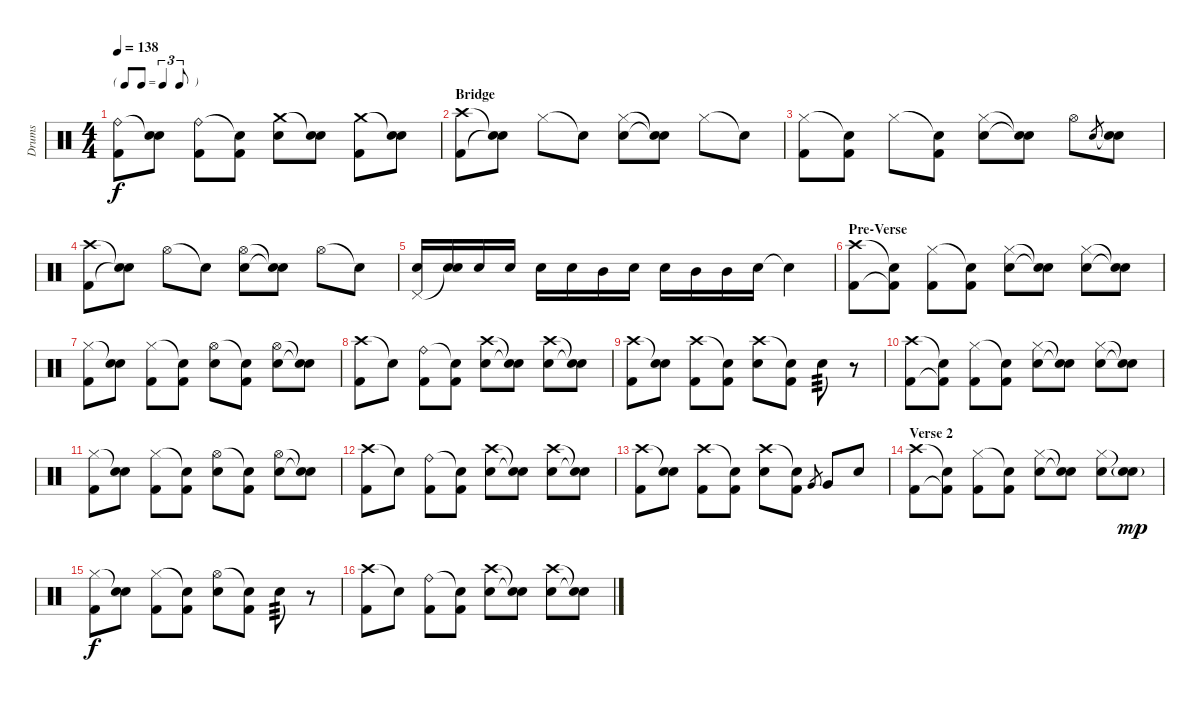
\track ("Drums" "Drums") {instrument percussion}
\staff {score}
\articulation defaults
\ts (4 4)
\tf triplet8th
\tempo 138
\clef neutral
\ks c
("Ride (bell)" "Kick (hit) 2").8{dy f} ("Snare (hit)"{t} "Electric Snare (hit)").8 ("Ride (bell)" "Kick (hit) 2").8 ("Snare (hit)"{t} "Kick (hit) 2").8 ("Crash medium (hit)" "Electric Snare (hit)").8 ("Snare (hit)"{t} "Electric Snare (hit)").8 ("Crash medium (hit)" "Kick (hit) 2").8 ("Snare (hit)"{t} "Electric Snare (hit)").8 |
\section ("" "Bridge")
("Crash high (hit)" "Kick (hit) 2").8 ("Snare (hit)"{t} "Snare (hit)"{t}).8 "Hi-Hat (closed)".8 "Snare (hit)"{t}.8 ("Hi-Hat (closed)" "Electric Snare (hit)").8 ("Snare (hit)"{t} "Snare (hit)"{t}).8 "Hi-Hat (closed)".8 "Snare (hit)"{t}.8 |
("Hi-Hat (closed)" "Kick (hit) 2").8 ("Snare (hit)"{t} "Kick (hit) 2").8 "Hi-Hat (closed)".8 ("Snare (hit)"{t} "Kick (hit) 2").8 ("Hi-Hat (closed)" "Electric Snare (hit)").8 ("Snare (hit)"{t} "Snare (hit)"{t}).8 "Hi-Hat (open)".8 "Electric Snare (hit)".8{gr} ("Snare (hit)"{t} "Electric Snare (hit)").8 |
("Crash high (hit)" "Kick (hit) 2").8 ("Snare (hit)"{t} "Snare (hit)"{t}).8 "Hi-Hat (open)".8 "Snare (hit)"{t}.8 ("Hi-Hat (open)" "Electric Snare (hit)").8 ("Snare (hit)"{t} "Snare (hit)"{t}).8 "Hi-Hat (open)".8 "Snare (hit)"{t}.8 |
("Pedal Hi-Hat (hit)" "Electric Snare (hit)").16 ("Snare (hit)"{t} "Electric Snare (hit)").16 "Electric Snare (hit)".16 "Electric Snare (hit)".16 "Electric Snare (hit)".16 "Electric Snare (hit)".16 "Mid Tom (hit)".16 "Electric Snare (hit)".16 "Electric Snare (hit)".16 "Mid Tom (hit)".16 "Mid Tom (hit)".16 "Electric Snare (hit)".16 "Snare (hit)"{t}.4 |
\section ("" "Pre-Verse")
("Crash high (hit)" "Kick (hit) 2").8 ("Snare (hit)"{t} "Kick (hit) 2"{t}).8 ("Hi-Hat (closed)" "Kick (hit) 2").8 ("Snare (hit)"{t} "Kick (hit) 2").8 ("Hi-Hat (closed)" "Electric Snare (hit)").8 ("Snare (hit)"{t} "Snare (hit)"{t}).8 ("Hi-Hat (closed)" "Electric Snare (hit)").8 ("Snare (hit)"{t} "Snare (hit)"{t}).8 |
("Hi-Hat (closed)" "Kick (hit) 2").8 ("Snare (hit)"{t} "Electric Snare (hit)").8 ("Hi-Hat (closed)" "Kick (hit) 2").8 ("Snare (hit)"{t} "Kick (hit) 2").8 ("Hi-Hat (open)" "Electric Snare (hit)").8 ("Snare (hit)"{t} "Kick (hit) 2").8 ("Hi-Hat (open)" "Electric Snare (hit)").8 ("Snare (hit)"{t} "Snare (hit)"{t}).8 |
("Crash high (hit)" "Kick (hit) 2").8 "Snare (hit)"{t}.8 ("Ride (bell)" "Kick (hit) 2").8 ("Snare (hit)"{t} "Kick (hit) 2").8 ("Crash high (hit)" "Electric Snare (hit)").8 ("Snare (hit)"{t} "Snare (hit)"{t}).8 ("Crash high (hit)" "Electric Snare (hit)").8 ("Snare (hit)"{t} "Snare (hit)"{t}).8 |
("Crash high (hit)" "Kick (hit) 2").8 ("Snare (hit)"{t} "Electric Snare (hit)").8 ("Crash high (hit)" "Kick (hit) 2").8 ("Snare (hit)"{t} "Kick (hit) 2").8 ("Crash high (hit)" "Electric Snare (hit)").8 ("Snare (hit)"{t} "Kick (hit) 2").8 "Electric Snare (hit)".8{tp 3} r.8 |
("Crash high (hit)" "Kick (hit) 2").8 ("Snare (hit)"{t} "Kick (hit) 2"{t}).8 ("Hi-Hat (closed)" "Kick (hit) 2").8 ("Snare (hit)"{t} "Kick (hit) 2").8 ("Hi-Hat (closed)" "Electric Snare (hit)").8 ("Snare (hit)"{t} "Snare (hit)"{t}).8 ("Hi-Hat (closed)" "Electric Snare (hit)").8 ("Snare (hit)"{t} "Snare (hit)"{t}).8 |
("Hi-Hat (closed)" "Kick (hit) 2").8 ("Snare (hit)"{t} "Electric Snare (hit)").8 ("Hi-Hat (closed)" "Kick (hit) 2").8 ("Snare (hit)"{t} "Kick (hit) 2").8 ("Hi-Hat (open)" "Electric Snare (hit)").8 ("Snare (hit)"{t} "Kick (hit) 2").8 ("Hi-Hat (open)" "Electric Snare (hit)").8 ("Snare (hit)"{t} "Snare (hit)"{t}).8 |
("Crash high (hit)" "Kick (hit) 2").8 "Snare (hit)"{t}.8 ("Ride (bell)" "Kick (hit) 2").8 ("Snare (hit)"{t} "Kick (hit) 2").8 ("Crash high (hit)" "Electric Snare (hit)").8 ("Snare (hit)"{t} "Snare (hit)"{t}).8 ("Crash high (hit)" "Electric Snare (hit)").8 ("Snare (hit)"{t} "Snare (hit)"{t}).8 |
("Crash high (hit)" "Kick (hit) 2").8 ("Snare (hit)"{t} "Electric Snare (hit)").8 ("Crash high (hit)" "Kick (hit) 2").8 ("Snare (hit)"{t} "Kick (hit) 2").8 ("Crash high (hit)" "Electric Snare (hit)").8 ("Snare (hit)"{t} "Kick (hit) 2").8 "Very Low Tom (hit)".8{gr} "Very Low Tom (hit)".8 "Electric Snare (hit)".8 |
\section ("" "Verse 2")
("Crash high (hit)" "Kick (hit) 2").8 ("Snare (hit)"{t} "Kick (hit) 2"{t}).8 ("Hi-Hat (closed)" "Kick (hit) 2").8 ("Snare (hit)"{t} "Kick (hit) 2").8 ("Hi-Hat (closed)" "Electric Snare (hit)").8 ("Snare (hit)"{t} "Snare (hit)"{t}).8 ("Hi-Hat (closed)" "Electric Snare (hit)").8 ("Snare (hit)"{t} "Electric Snare (hit)"{g}).8{dy mp} |
("Hi-Hat (closed)" "Kick (hit) 2").8{dy f} ("Snare (hit)"{t} "Electric Snare (hit)").8 ("Hi-Hat (closed)" "Kick (hit) 2").8 ("Snare (hit)"{t} "Kick (hit) 2").8 ("Hi-Hat (open)" "Electric Snare (hit)").8 ("Snare (hit)"{t} "Kick (hit) 2").8 "Electric Snare (hit)".8{tp 3} r.8 |
("Crash high (hit)" "Kick (hit) 2").8 "Snare (hit)"{t}.8 ("Ride (bell)" "Kick (hit) 2").8 ("Snare (hit)"{t} "Kick (hit) 2").8 ("Crash high (hit)" "Electric Snare (hit)").8 ("Snare (hit)"{t} "Snare (hit)"{t}).8 ("Crash high (hit)" "Electric Snare (hit)").8 ("Snare (hit)"{t} "Snare (hit)"{t}).8
